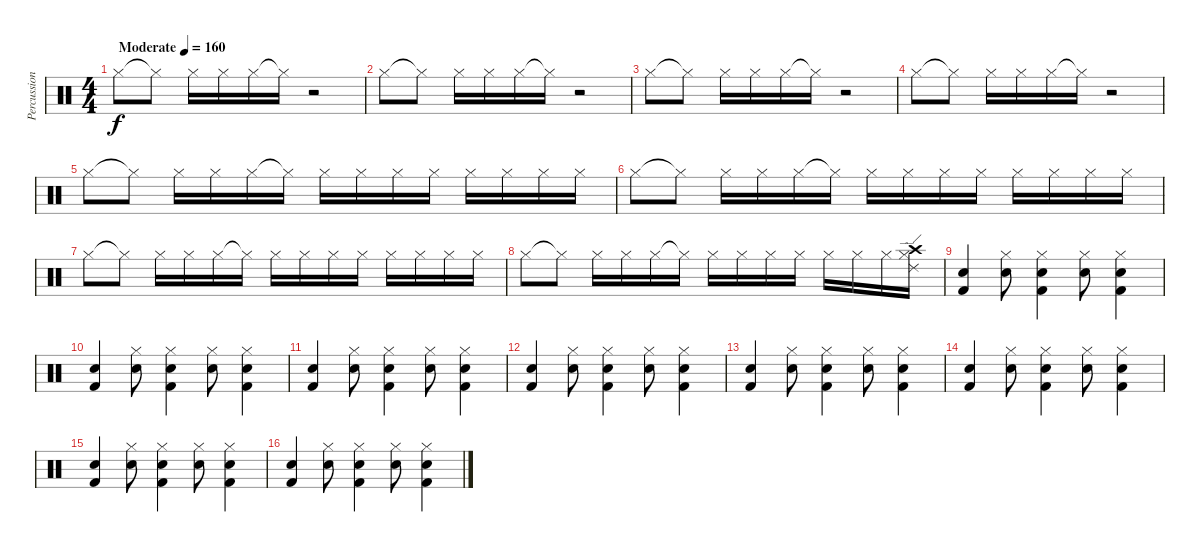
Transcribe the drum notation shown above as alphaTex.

\track ("Percussion" "Percussion") {instrument percussion}
\staff {score}
\articulation defaults
\ts (4 4)
\tempo (160 "Moderate")
\clef neutral
\ks c "Hi-Hat (closed)".8{dy f} "Hi-Hat (closed)"{t}.8 "Hi-Hat (closed)".16 "Hi-Hat (closed)".16 "Hi-Hat (closed)".16 "Hi-Hat (closed)"{t}.16
r.2 |
"Hi-Hat (closed)".8 "Hi-Hat (closed)"{t}.8 "Hi-Hat (closed)".16 "Hi-Hat (closed)".16 "Hi-Hat (closed)".16 "Hi-Hat (closed)"{t}.16 r.2 |
"Hi-Hat (closed)".8 "Hi-Hat (closed)"{t}.8 "Hi-Hat (closed)".16 "Hi-Hat (closed)".16 "Hi-Hat (closed)".16 "Hi-Hat (closed)"{t}.16 r.2 |
"Hi-Hat (closed)".8 "Hi-Hat (closed)"{t}.8 "Hi-Hat (closed)".16 "Hi-Hat (closed)".16 "Hi-Hat (closed)".16 "Hi-Hat (closed)"{t}.16 r.2 |
"Hi-Hat (closed)".8 "Hi-Hat (closed)"{t}.8 "Hi-Hat (closed)".16 "Hi-Hat (closed)".16 "Hi-Hat (closed)".16 "Hi-Hat (closed)"{t}.16 "Hi-Hat (closed)".16 "Hi-Hat (closed)".16 "Hi-Hat (closed)".16 "Hi-Hat (closed)".16 "Hi-Hat (closed)".16 "Hi-Hat (closed)".16 "Hi-Hat (closed)".16 "Hi-Hat (closed)".16 |
"Hi-Hat (closed)".8 "Hi-Hat (closed)"{t}.8 "Hi-Hat (closed)".16 "Hi-Hat (closed)".16 "Hi-Hat (closed)".16 "Hi-Hat (closed)"{t}.16 "Hi-Hat (closed)".16 "Hi-Hat (closed)".16 "Hi-Hat (closed)".16 "Hi-Hat (closed)".16 "Hi-Hat (closed)".16 "Hi-Hat (closed)".16 "Hi-Hat (closed)".16 "Hi-Hat (closed)".16 |
"Hi-Hat (closed)".8 "Hi-Hat (closed)"{t}.8 "Hi-Hat (closed)".16 "Hi-Hat (closed)".16 "Hi-Hat (closed)".16 "Hi-Hat (closed)"{t}.16 "Hi-Hat (closed)".16 "Hi-Hat (closed)".16 "Hi-Hat (closed)".16 "Hi-Hat (closed)".16 "Hi-Hat (closed)".16 "Hi-Hat (closed)".16 "Hi-Hat (closed)".16 "Hi-Hat (closed)".16 |
"Hi-Hat (closed)".8 "Hi-Hat (closed)"{t}.8 "Hi-Hat (closed)".16 "Hi-Hat (closed)".16 "Hi-Hat (closed)".16 "Hi-Hat (closed)"{t}.16 "Hi-Hat (closed)".16 "Hi-Hat (closed)".16 "Hi-Hat (closed)".16 "Hi-Hat (closed)".16 "Hi-Hat (closed)".16 "Hi-Hat (closed)".16 "Hi-Hat (closed)".16 ("Hi-Hat (closed)" "Crash high (hit)" "Ride (edge) 2").16 |
("Kick (hit) 2" "Electric Snare (hit)").4 ("Hi-Hat (closed)" "Electric Snare (hit)").8 ("Hi-Hat (closed)" "Kick (hit) 2" "Electric Snare (hit)").4 ("Hi-Hat (closed)" "Electric Snare (hit)").8 ("Hi-Hat (closed)" "Kick (hit) 2" "Electric Snare (hit)").4 |
("Kick (hit) 2" "Electric Snare (hit)").4 ("Hi-Hat (closed)" "Electric Snare (hit)").8 ("Hi-Hat (closed)" "Kick (hit) 2" "Electric Snare (hit)").4 ("Hi-Hat (closed)" "Electric Snare (hit)").8 ("Hi-Hat (closed)" "Kick (hit) 2" "Electric Snare (hit)").4 |
("Kick (hit) 2" "Electric Snare (hit)").4 ("Hi-Hat (closed)" "Electric Snare (hit)").8 ("Hi-Hat (closed)" "Kick (hit) 2" "Electric Snare (hit)").4 ("Hi-Hat (closed)" "Electric Snare (hit)").8 ("Hi-Hat (closed)" "Kick (hit) 2" "Electric Snare (hit)").4 |
("Kick (hit) 2" "Electric Snare (hit)").4 ("Hi-Hat (closed)" "Electric Snare (hit)").8 ("Hi-Hat (closed)" "Kick (hit) 2" "Electric Snare (hit)").4 ("Hi-Hat (closed)" "Electric Snare (hit)").8 ("Hi-Hat (closed)" "Kick (hit) 2" "Electric Snare (hit)").4 |
("Kick (hit) 2" "Electric Snare (hit)").4 ("Hi-Hat (closed)" "Electric Snare (hit)").8 ("Hi-Hat (closed)" "Kick (hit) 2" "Electric Snare (hit)").4 ("Hi-Hat (closed)" "Electric Snare (hit)").8 ("Hi-Hat (closed)" "Kick (hit) 2" "Electric Snare (hit)").4 |
("Kick (hit) 2" "Electric Snare (hit)").4 ("Hi-Hat (closed)" "Electric Snare (hit)").8 ("Hi-Hat (closed)" "Kick (hit) 2" "Electric Snare (hit)").4 ("Hi-Hat (closed)" "Electric Snare (hit)").8 ("Hi-Hat (closed)" "Kick (hit) 2" "Electric Snare (hit)").4 |
("Kick (hit) 2" "Electric Snare (hit)").4 ("Hi-Hat (closed)" "Electric Snare (hit)").8 ("Hi-Hat (closed)" "Kick (hit) 2" "Electric Snare (hit)").4 ("Hi-Hat (closed)" "Electric Snare (hit)").8 ("Hi-Hat (closed)" "Kick (hit) 2" "Electric Snare (hit)").4 |
("Kick (hit) 2" "Electric Snare (hit)").4 ("Hi-Hat (closed)" "Electric Snare (hit)").8 ("Hi-Hat (closed)" "Kick (hit) 2" "Electric Snare (hit)").4 ("Hi-Hat (closed)" "Electric Snare (hit)").8 ("Hi-Hat (closed)" "Kick (hit) 2" "Electric Snare (hit)").4
